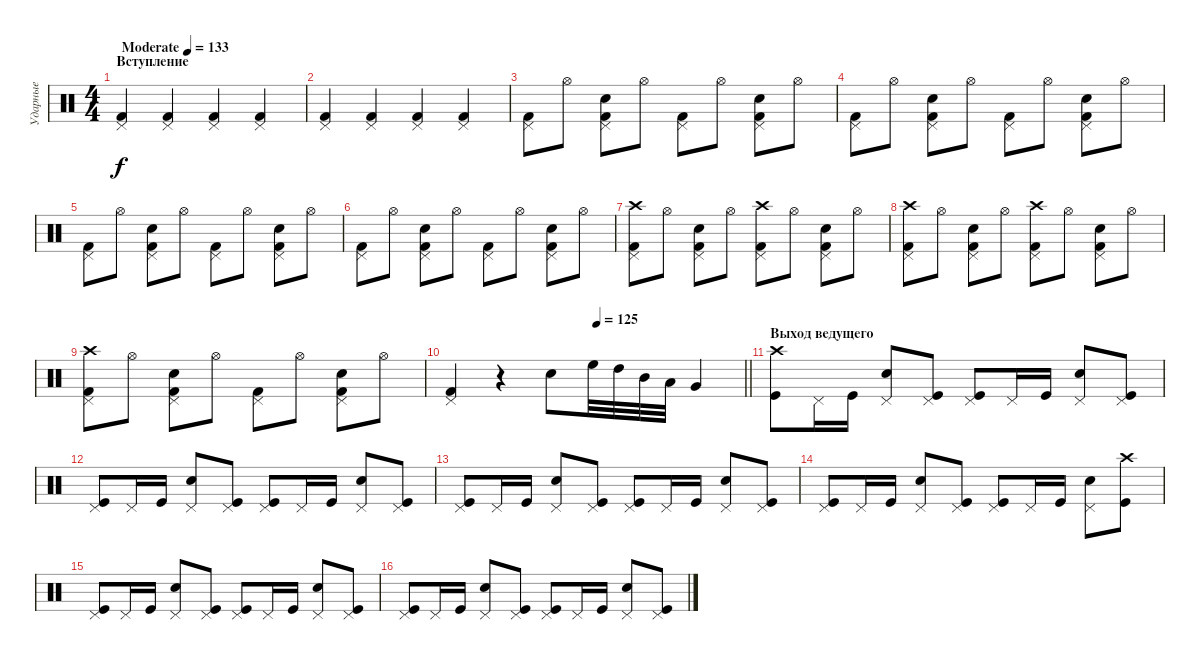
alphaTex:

\track ("Ударные" "Ударные") {instrument percussion}
\staff {score}
\articulation defaults
\ts (4 4)
\section ("" "Вступление")
\tempo (133 "Moderate")
\clef neutral
\ks c
("Kick (hit) 2" "Pedal Hi-Hat (hit)").4{dy f} ("Kick (hit) 2" "Pedal Hi-Hat (hit)").4 ("Kick (hit) 2" "Pedal Hi-Hat (hit)").4 ("Kick (hit) 2" "Pedal Hi-Hat (hit)").4 |
("Kick (hit) 2" "Pedal Hi-Hat (hit)").4 ("Kick (hit) 2" "Pedal Hi-Hat (hit)").4 ("Kick (hit) 2" "Pedal Hi-Hat (hit)").4 ("Kick (hit) 2" "Pedal Hi-Hat (hit)").4 |
("Kick (hit) 2" "Pedal Hi-Hat (hit)").8 "Hi-Hat (open)".8 ("Kick (hit) 2" "Pedal Hi-Hat (hit)" "Hand Clap (hit)").8 "Hi-Hat (open)".8 ("Kick (hit) 2" "Pedal Hi-Hat (hit)").8 "Hi-Hat (open)".8 ("Kick (hit) 2" "Pedal Hi-Hat (hit)" "Hand Clap (hit)").8 "Hi-Hat (open)".8 |
("Kick (hit) 2" "Pedal Hi-Hat (hit)").8 "Hi-Hat (open)".8 ("Kick (hit) 2" "Pedal Hi-Hat (hit)" "Hand Clap (hit)").8 "Hi-Hat (open)".8 ("Kick (hit) 2" "Pedal Hi-Hat (hit)").8 "Hi-Hat (open)".8 ("Kick (hit) 2" "Pedal Hi-Hat (hit)" "Hand Clap (hit)").8 "Hi-Hat (open)".8 |
("Kick (hit) 2" "Pedal Hi-Hat (hit)").8 "Hi-Hat (open)".8 ("Kick (hit) 2" "Pedal Hi-Hat (hit)" "Hand Clap (hit)").8 "Hi-Hat (open)".8 ("Kick (hit) 2" "Pedal Hi-Hat (hit)").8 "Hi-Hat (open)".8 ("Kick (hit) 2" "Pedal Hi-Hat (hit)" "Hand Clap (hit)").8 "Hi-Hat (open)".8 |
("Kick (hit) 2" "Pedal Hi-Hat (hit)").8 "Hi-Hat (open)".8 ("Kick (hit) 2" "Pedal Hi-Hat (hit)" "Hand Clap (hit)").8 "Hi-Hat (open)".8 ("Kick (hit) 2" "Pedal Hi-Hat (hit)").8 "Hi-Hat (open)".8 ("Kick (hit) 2" "Pedal Hi-Hat (hit)" "Hand Clap (hit)").8 "Hi-Hat (open)".8 |
("Kick (hit) 2" "Pedal Hi-Hat (hit)" "Crash high (hit)").8 "Hi-Hat (open)".8 ("Kick (hit) 2" "Pedal Hi-Hat (hit)" "Hand Clap (hit)").8 "Hi-Hat (open)".8 ("Kick (hit) 2" "Pedal Hi-Hat (hit)" "Crash high (hit)").8 "Hi-Hat (open)".8 ("Kick (hit) 2" "Pedal Hi-Hat (hit)" "Hand Clap (hit)").8 "Hi-Hat (open)".8 |
("Kick (hit) 2" "Pedal Hi-Hat (hit)" "Crash high (hit)").8 "Hi-Hat (open)".8 ("Kick (hit) 2" "Pedal Hi-Hat (hit)" "Hand Clap (hit)").8 "Hi-Hat (open)".8 ("Kick (hit) 2" "Pedal Hi-Hat (hit)" "Crash high (hit)").8 "Hi-Hat (open)".8 ("Kick (hit) 2" "Pedal Hi-Hat (hit)" "Hand Clap (hit)").8 "Hi-Hat (open)".8 |
("Kick (hit) 2" "Pedal Hi-Hat (hit)" "Crash high (hit)").8 "Hi-Hat (open)".8 ("Kick (hit) 2" "Pedal Hi-Hat (hit)" "Hand Clap (hit)").8 "Hi-Hat (open)".8 ("Kick (hit) 2" "Pedal Hi-Hat (hit)").8 "Hi-Hat (open)".8 ("Kick (hit) 2" "Pedal Hi-Hat (hit)" "Hand Clap (hit)").8 "Hi-Hat (open)".8 |
\tempo (125 0.5)
\barLineRight lightlight
("Kick (hit) 2" "Pedal Hi-Hat (hit)").4 r.4 "Snare (hit) 2".8 "High Floor Tom (hit)".32 "High Tom (hit)".32 "Mid Tom (hit)".32 "Low Tom (hit)".32 "Very Low Tom (hit)".4 |
\section ("" "Выход ведущего")
("Kick (hit)" "Crash high (hit)").8 "Pedal Hi-Hat (hit)".16 "Kick (hit)".16 ("Pedal Hi-Hat (hit)" "Snare (hit) 2").8 ("Kick (hit)" "Pedal Hi-Hat (hit)").8 ("Kick (hit)" "Pedal Hi-Hat (hit)").8 "Pedal Hi-Hat (hit)".16 "Kick (hit)".16 ("Pedal Hi-Hat (hit)" "Snare (hit) 2").8 ("Kick (hit)" "Pedal Hi-Hat (hit)").8 |
("Kick (hit)" "Pedal Hi-Hat (hit)").8 "Pedal Hi-Hat (hit)".16 "Kick (hit)".16 ("Pedal Hi-Hat (hit)" "Snare (hit) 2").8 ("Kick (hit)" "Pedal Hi-Hat (hit)").8 ("Kick (hit)" "Pedal Hi-Hat (hit)").8 "Pedal Hi-Hat (hit)".16 "Kick (hit)".16 ("Pedal Hi-Hat (hit)" "Snare (hit) 2").8 ("Kick (hit)" "Pedal Hi-Hat (hit)").8 |
("Kick (hit)" "Pedal Hi-Hat (hit)").8 "Pedal Hi-Hat (hit)".16 "Kick (hit)".16 ("Pedal Hi-Hat (hit)" "Snare (hit) 2").8 ("Kick (hit)" "Pedal Hi-Hat (hit)").8 ("Kick (hit)" "Pedal Hi-Hat (hit)").8 "Pedal Hi-Hat (hit)".16 "Kick (hit)".16 ("Pedal Hi-Hat (hit)" "Snare (hit) 2").8 ("Kick (hit)" "Pedal Hi-Hat (hit)").8 |
("Kick (hit)" "Pedal Hi-Hat (hit)").8 "Pedal Hi-Hat (hit)".16 "Kick (hit)".16 ("Pedal Hi-Hat (hit)" "Snare (hit) 2").8 ("Kick (hit)" "Pedal Hi-Hat (hit)").8 ("Kick (hit)" "Pedal Hi-Hat (hit)").8 "Pedal Hi-Hat (hit)".16 "Kick (hit)".16 ("Pedal Hi-Hat (hit)" "Snare (hit) 2").8 ("Kick (hit)" "Crash high (hit)").8 |
("Kick (hit)" "Pedal Hi-Hat (hit)").8 "Pedal Hi-Hat (hit)".16 "Kick (hit)".16 ("Pedal Hi-Hat (hit)" "Snare (hit) 2").8 ("Kick (hit)" "Pedal Hi-Hat (hit)").8 ("Kick (hit)" "Pedal Hi-Hat (hit)").8 "Pedal Hi-Hat (hit)".16 "Kick (hit)".16 ("Pedal Hi-Hat (hit)" "Snare (hit) 2").8 ("Kick (hit)" "Pedal Hi-Hat (hit)").8 |
("Kick (hit)" "Pedal Hi-Hat (hit)").8 "Pedal Hi-Hat (hit)".16 "Kick (hit)".16 ("Pedal Hi-Hat (hit)" "Snare (hit) 2").8 ("Kick (hit)" "Pedal Hi-Hat (hit)").8 ("Kick (hit)" "Pedal Hi-Hat (hit)").8 "Pedal Hi-Hat (hit)".16 "Kick (hit)".16 ("Pedal Hi-Hat (hit)" "Snare (hit) 2").8 ("Kick (hit)" "Pedal Hi-Hat (hit)").8
